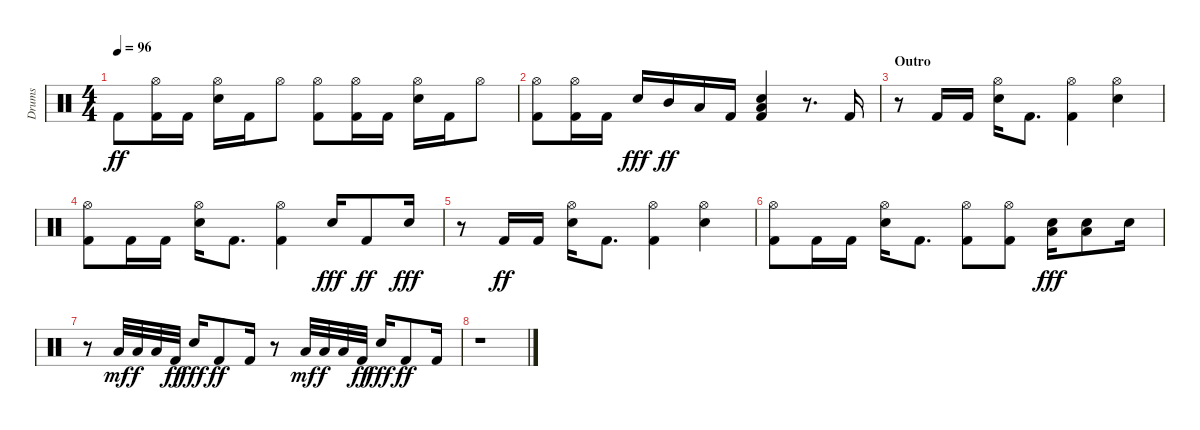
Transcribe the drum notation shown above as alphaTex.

\track ("Drums" "Drums") {instrument percussion}
\staff {score}
\articulation defaults
\ts (4 4)
\tempo 96
\clef neutral
\ks c "Kick (hit) 2".8{dy ff}
("Hi-Hat (open)" "Kick (hit) 2").16 "Kick (hit) 2".16 ("Snare (hit) 2" "Hi-Hat (open)").16 "Kick (hit) 2".16 "Hi-Hat (open)".8 ("Hi-Hat (open)" "Kick (hit) 2").8 ("Hi-Hat (open)" "Kick (hit) 2").16 "Kick (hit) 2".16 ("Snare (hit) 2" "Hi-Hat (open)").16 "Kick (hit) 2".16 "Hi-Hat (open)".8 |
("Hi-Hat (open)" "Kick (hit) 2").8 ("Hi-Hat (open)" "Kick (hit) 2").16 "Kick (hit) 2".16 "Snare (hit) 2".16{dy fff} "Mid Tom (hit)".16{dy ff} "Low Floor Tom (hit)".16 "Kick (hit) 2".16 ("Low Floor Tom (hit)" "Snare (hit) 2" "Kick (hit) 2").4 r.8{d} "Kick (hit) 2".16 |
\section ("" "Outro")
r.8 "Kick (hit) 2".16 "Kick (hit) 2".16 ("Snare (hit) 2" "Hi-Hat (open)").16 "Kick (hit) 2".8{d} ("Hi-Hat (open)" "Kick (hit) 2").4 ("Snare (hit) 2" "Hi-Hat (open)").4 |
("Hi-Hat (open)" "Kick (hit) 2").8 "Kick (hit) 2".16 "Kick (hit) 2".16 ("Snare (hit) 2" "Hi-Hat (open)").16 "Kick (hit) 2".8{d} ("Hi-Hat (open)" "Kick (hit) 2").4 "Snare (hit) 2".16{dy fff} "Kick (hit) 2".8{dy ff} "Snare (hit) 2".16{dy fff} |
r.8 "Kick (hit) 2".16{dy ff} "Kick (hit) 2".16 ("Snare (hit) 2" "Hi-Hat (open)").16 "Kick (hit) 2".8{d} ("Hi-Hat (open)" "Kick (hit) 2").4 ("Snare (hit) 2" "Hi-Hat (open)").4 |
("Hi-Hat (open)" "Kick (hit) 2").8 "Kick (hit) 2".16 "Kick (hit) 2".16 ("Snare (hit) 2" "Hi-Hat (open)").16 "Kick (hit) 2".8{d} ("Hi-Hat (open)" "Kick (hit) 2").8 ("Hi-Hat (open)" "Kick (hit) 2").8 ("Low Floor Tom (hit)" "Snare (hit) 2").16{dy fff} ("Low Floor Tom (hit)" "Snare (hit) 2").8 "Snare (hit) 2".16 |
r.8 "Low Tom (hit)".32{dy mf} "Low Tom (hit)".32{dy f} "Low Floor Tom (hit)".32 "Kick (hit) 2".32{dy ff} "Snare (hit) 2".16{dy fff} "Kick (hit) 2".8{dy ff} "Kick (hit) 2".16 r.8 "Low Tom (hit)".32{dy mf} "Low Tom (hit)".32{dy f} "Low Floor Tom (hit)".32 "Kick (hit) 2".32{dy ff} "Snare (hit) 2".16{dy fff} "Kick (hit) 2".8{dy ff} "Kick (hit) 2".16 |
r.1
